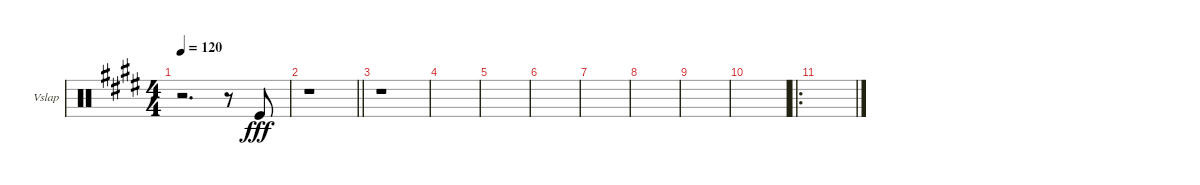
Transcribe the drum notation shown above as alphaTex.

\defaultSystemsLayout 4
\bracketExtendMode groupsimilarinstruments
\firstSystemTrackNameOrientation horizontal
\otherSystemsTrackNameOrientation horizontal
\track ("Vibraslap" "Vslap") {instrument percussion}
\staff {score}
\articulation defaults
\ts (4 4)
\tempo 120
\clef neutral
\scale
0.333333
\ks e
r.2{d dy fff} r.8 "Kick (hit)".8 |
\scale
0.333333
\barLineRight lightlight
r.1 |
\scale
0.333333 r.1 |
\scale
0.333333 |
\scale
0.333333 |
\scale
0.333333 |
\scale
0.333333 |
\scale
0.333333 |
\scale
0.333333 |
\scale
0.311475 |
\ro
\scale
0.377049 |
\scale
0.311475 |
\scale
0.333333 |
\scale
0.333333 |
\scale
0.333333 |
\scale
0.322034
